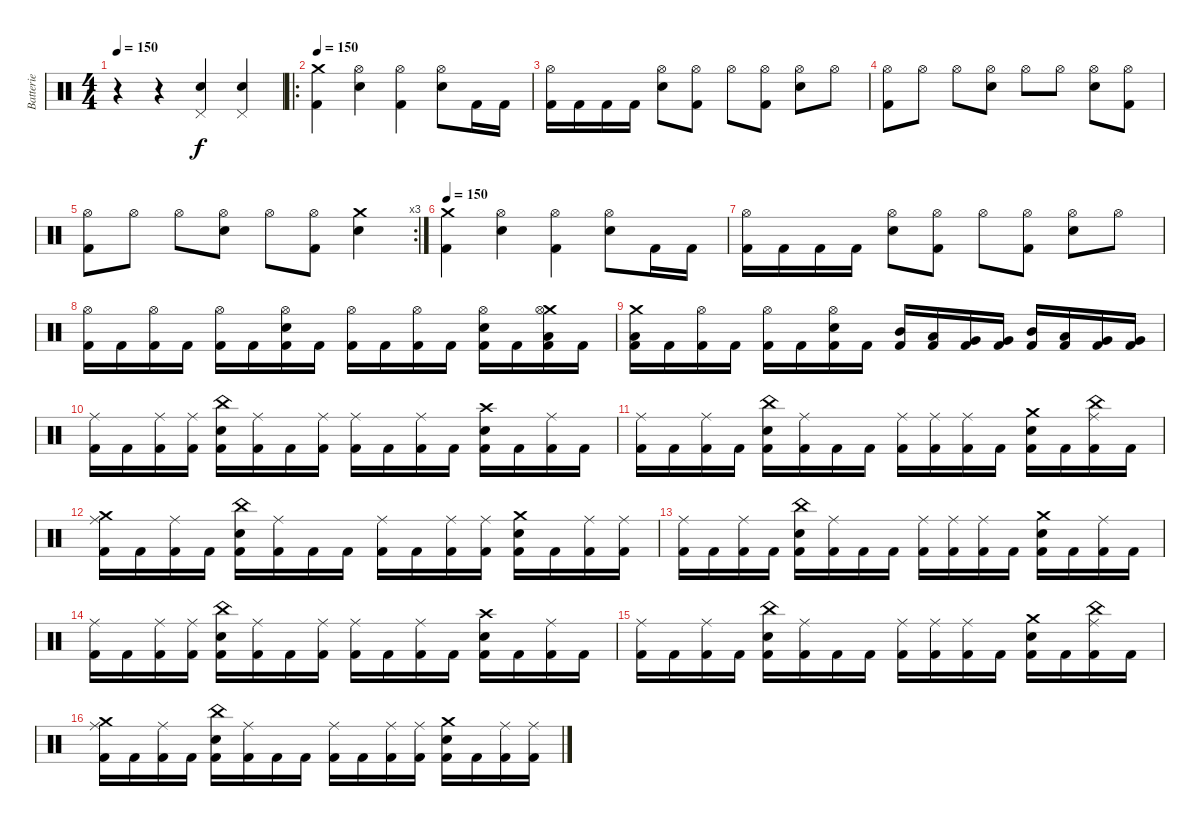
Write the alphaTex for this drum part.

\track ("Batterie" "Batterie") {instrument percussion}
\staff {score}
\articulation defaults
\ts (4 4)
\tempo 150
\clef neutral
\ks c
r.4{dy f} r.4 ("Pedal Hi-Hat (hit)" "Electric Snare (hit)").4 ("Pedal Hi-Hat (hit)" "Electric Snare (hit)").4 |
\ro
\tempo 150
("Crash medium (hit)" "Kick (hit) 2").4 ("Hi-Hat (open)" "Electric Snare (hit)").4 ("Hi-Hat (open)" "Kick (hit) 2").4 ("Hi-Hat (open)" "Electric Snare (hit)").8 "Kick (hit) 2".16 "Kick (hit) 2".16 |
("Hi-Hat (open)" "Kick (hit) 2").16 "Kick (hit) 2".16 "Kick (hit) 2".16 "Kick (hit) 2".16 ("Hi-Hat (open)" "Electric Snare (hit)").8 ("Hi-Hat (open)" "Kick (hit) 2").8 "Hi-Hat (open)".8 ("Hi-Hat (open)" "Kick (hit) 2").8 ("Hi-Hat (open)" "Electric Snare (hit)").8 "Hi-Hat (open)".8 |
("Hi-Hat (open)" "Kick (hit) 2").8 "Hi-Hat (open)".8 "Hi-Hat (open)".8 ("Hi-Hat (open)" "Electric Snare (hit)").8 "Hi-Hat (open)".8 "Hi-Hat (open)".8 ("Hi-Hat (open)" "Electric Snare (hit)").8 ("Hi-Hat (open)" "Kick (hit) 2").8 |
\rc 3
("Hi-Hat (open)" "Kick (hit) 2").8 "Hi-Hat (open)".8 "Hi-Hat (open)".8 ("Hi-Hat (open)" "Electric Snare (hit)").8 "Hi-Hat (open)".8 ("Hi-Hat (open)" "Kick (hit) 2").8 ("Crash medium (hit)" "Electric Snare (hit)").4 |
\tempo 150
("Crash medium (hit)" "Kick (hit) 2").4 ("Hi-Hat (open)" "Electric Snare (hit)").4 ("Hi-Hat (open)" "Kick (hit) 2").4 ("Hi-Hat (open)" "Electric Snare (hit)").8 "Kick (hit) 2".16 "Kick (hit) 2".16 |
("Hi-Hat (open)" "Kick (hit) 2").16 "Kick (hit) 2".16 "Kick (hit) 2".16 "Kick (hit) 2".16 ("Hi-Hat (open)" "Electric Snare (hit)").8 ("Hi-Hat (open)" "Kick (hit) 2").8 "Hi-Hat (open)".8 ("Hi-Hat (open)" "Kick (hit) 2").8 ("Hi-Hat (open)" "Electric Snare (hit)").8 "Hi-Hat (open)".8 |
("Hi-Hat (open)" "Kick (hit) 2").16 "Kick (hit) 2".16 ("Hi-Hat (open)" "Kick (hit) 2").16 "Kick (hit) 2".16 ("Hi-Hat (open)" "Kick (hit) 2").16 "Kick (hit) 2".16 ("Electric Snare (hit)" "Hi-Hat (open)" "Kick (hit) 2").16 "Kick (hit) 2".16 ("Hi-Hat (open)" "Kick (hit) 2").16 "Kick (hit) 2".16 ("Hi-Hat (open)" "Kick (hit) 2").16 "Kick (hit) 2".16 ("Electric Snare (hit)" "Hi-Hat (open)" "Kick (hit) 2").16 "Kick (hit) 2".16 ("Crash medium (hit)" "Low Tom (hit)" "Hi-Hat (open)" "Kick (hit) 2").16 "Kick (hit) 2".16 |
("Crash medium (hit)" "Low Tom (hit)" "Kick (hit) 2").16 "Kick (hit) 2".16 ("Hi-Hat (open)" "Kick (hit) 2").16 "Kick (hit) 2".16 ("Hi-Hat (open)" "Kick (hit) 2").16 "Kick (hit) 2".16 ("Hi-Hat (open)" "Electric Snare (hit)" "Kick (hit) 2").16 "Kick (hit) 2".16 ("Mid Tom (hit)" "Kick (hit) 2").16 ("Low Tom (hit)" "Kick (hit) 2").16 ("Very Low Tom (hit)" "Kick (hit) 2").16 ("Very Low Tom (hit)" "Kick (hit) 2").16 ("Mid Tom (hit)" "Kick (hit) 2").16 ("Low Tom (hit)" "Kick (hit) 2").16 ("Very Low Tom (hit)" "Kick (hit) 2").16 ("Very Low Tom (hit)" "Kick (hit) 2").16 |
("Ride (middle)" "Kick (hit) 2").16 "Kick (hit) 2".16 ("Ride (middle)" "Kick (hit) 2").16 ("Ride (middle)" "Kick (hit) 2").16 ("China (hit)" "Electric Snare (hit)" "Kick (hit) 2").16 ("Ride (middle)" "Kick (hit) 2").16 "Kick (hit) 2".16 ("Ride (middle)" "Kick (hit) 2").16 ("Ride (middle)" "Kick (hit) 2").16 "Kick (hit) 2".16 ("Ride (middle)" "Kick (hit) 2").16 "Kick (hit) 2".16 ("Crash high (hit)" "Electric Snare (hit)" "Kick (hit) 2").16 "Kick (hit) 2".16 ("Ride (middle)" "Kick (hit) 2").16 "Kick (hit) 2".16 |
("Ride (middle)" "Kick (hit) 2").16 "Kick (hit) 2".16 ("Ride (middle)" "Kick (hit) 2").16 "Kick (hit) 2".16 ("China (hit)" "Electric Snare (hit)" "Kick (hit) 2").16 ("Ride (middle)" "Kick (hit) 2").16 "Kick (hit) 2".16 "Kick (hit) 2".16 ("Ride (middle)" "Kick (hit) 2").16 ("Ride (middle)" "Kick (hit) 2").16 ("Ride (middle)" "Kick (hit) 2").16 "Kick (hit) 2".16 ("Crash medium (hit)" "Electric Snare (hit)" "Kick (hit) 2").16 "Kick (hit) 2".16 ("China (hit)" "Ride (middle)" "Kick (hit) 2").16 "Kick (hit) 2".16 |
("Crash medium (hit)" "Ride (middle)" "Kick (hit) 2").16 "Kick (hit) 2".16 ("Ride (middle)" "Kick (hit) 2").16 "Kick (hit) 2".16 ("China (hit)" "Electric Snare (hit)" "Kick (hit) 2").16 ("Ride (middle)" "Kick (hit) 2").16 "Kick (hit) 2".16 "Kick (hit) 2".16 ("Ride (middle)" "Kick (hit) 2").16 "Kick (hit) 2".16 ("Ride (middle)" "Kick (hit) 2").16 ("Ride (middle)" "Kick (hit) 2").16 ("Crash medium (hit)" "Electric Snare (hit)" "Kick (hit) 2").16 "Kick (hit) 2".16 ("Ride (middle)" "Kick (hit) 2").16 ("Ride (middle)" "Kick (hit) 2").16 |
("Ride (middle)" "Kick (hit) 2").16 "Kick (hit) 2".16 ("Ride (middle)" "Kick (hit) 2").16 "Kick (hit) 2".16 ("China (hit)" "Electric Snare (hit)" "Kick (hit) 2").16 ("Ride (middle)" "Kick (hit) 2").16 "Kick (hit) 2".16 "Kick (hit) 2".16 ("Ride (middle)" "Kick (hit) 2").16 ("Ride (middle)" "Kick (hit) 2").16 ("Ride (middle)" "Kick (hit) 2").16 "Kick (hit) 2".16 ("Crash medium (hit)" "Electric Snare (hit)" "Kick (hit) 2").16 "Kick (hit) 2".16 ("Ride (middle)" "Kick (hit) 2").16 "Kick (hit) 2".16 |
("Ride (middle)" "Kick (hit) 2").16 "Kick (hit) 2".16 ("Ride (middle)" "Kick (hit) 2").16 ("Ride (middle)" "Kick (hit) 2").16 ("China (hit)" "Electric Snare (hit)" "Kick (hit) 2").16 ("Ride (middle)" "Kick (hit) 2").16 "Kick (hit) 2".16 ("Ride (middle)" "Kick (hit) 2").16 ("Ride (middle)" "Kick (hit) 2").16 "Kick (hit) 2".16 ("Ride (middle)" "Kick (hit) 2").16 "Kick (hit) 2".16 ("Crash high (hit)" "Electric Snare (hit)" "Kick (hit) 2").16 "Kick (hit) 2".16 ("Ride (middle)" "Kick (hit) 2").16 "Kick (hit) 2".16 |
("Ride (middle)" "Kick (hit) 2").16 "Kick (hit) 2".16 ("Ride (middle)" "Kick (hit) 2").16 "Kick (hit) 2".16 ("China (hit)" "Electric Snare (hit)" "Kick (hit) 2").16 ("Ride (middle)" "Kick (hit) 2").16 "Kick (hit) 2".16 "Kick (hit) 2".16 ("Ride (middle)" "Kick (hit) 2").16 ("Ride (middle)" "Kick (hit) 2").16 ("Ride (middle)" "Kick (hit) 2").16 "Kick (hit) 2".16 ("Crash medium (hit)" "Electric Snare (hit)" "Kick (hit) 2").16 "Kick (hit) 2".16 ("China (hit)" "Ride (middle)" "Kick (hit) 2").16 "Kick (hit) 2".16 |
("Crash medium (hit)" "Ride (middle)" "Kick (hit) 2").16 "Kick (hit) 2".16 ("Ride (middle)" "Kick (hit) 2").16 "Kick (hit) 2".16 ("China (hit)" "Electric Snare (hit)" "Kick (hit) 2").16 ("Ride (middle)" "Kick (hit) 2").16 "Kick (hit) 2".16 "Kick (hit) 2".16 ("Ride (middle)" "Kick (hit) 2").16 "Kick (hit) 2".16 ("Ride (middle)" "Kick (hit) 2").16 ("Ride (middle)" "Kick (hit) 2").16 ("Crash medium (hit)" "Electric Snare (hit)" "Kick (hit) 2").16 "Kick (hit) 2".16 ("Ride (middle)" "Kick (hit) 2").16 ("Ride (middle)" "Kick (hit) 2").16
